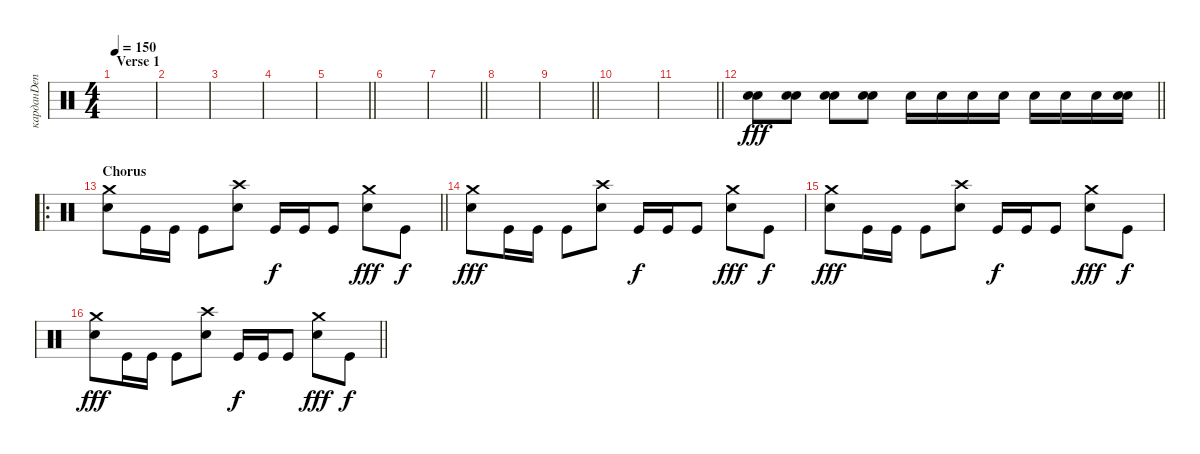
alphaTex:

\track ("карданDen" "карданDen") {instrument percussion}
\staff {score}
\articulation defaults
\ts (4 4)
\section ("" "Verse 1")
\tempo 150
\clef neutral
\ks c
|
|
|
|
\barLineRight lightlight
|
|
\barLineRight lightlight
|
|
\barLineRight lightlight
|
|
\barLineRight lightlight
|
\barLineRight lightlight
("Electric Snare (hit)" "Electric Snare (hit)").8{dy fff} ("Electric Snare (hit)" "Electric Snare (hit)").8 ("Electric Snare (hit)" "Electric Snare (hit)").8 ("Electric Snare (hit)" "Electric Snare (hit)").8 "Electric Snare (hit)".16 "Electric Snare (hit)".16 "Electric Snare (hit)".16 "Electric Snare (hit)".16 "Electric Snare (hit)".16 "Electric Snare (hit)".16 "Electric Snare (hit)".16 ("Electric Snare (hit)" "Electric Snare (hit)").16 |
\ro
\section ("" "Chorus")
\barLineRight lightlight
("Crash medium (hit)" "Electric Snare (hit)").8 "Kick (hit)".16 "Kick (hit)".16 "Kick (hit)".8 ("Crash high (hit)" "Electric Snare (hit)").8 "Kick (hit)".16{dy f} "Kick (hit)".16 "Kick (hit)".8 ("Crash medium (hit)" "Electric Snare (hit)").8{dy fff} "Kick (hit)".8{dy f} |
("Crash medium (hit)" "Electric Snare (hit)").8{dy fff} "Kick (hit)".16 "Kick (hit)".16 "Kick (hit)".8 ("Crash high (hit)" "Electric Snare (hit)").8 "Kick (hit)".16{dy f} "Kick (hit)".16 "Kick (hit)".8 ("Crash medium (hit)" "Electric Snare (hit)").8{dy fff} "Kick (hit)".8{dy f} |
("Crash medium (hit)" "Electric Snare (hit)").8{dy fff} "Kick (hit)".16 "Kick (hit)".16 "Kick (hit)".8 ("Crash high (hit)" "Electric Snare (hit)").8 "Kick (hit)".16{dy f} "Kick (hit)".16 "Kick (hit)".8 ("Crash medium (hit)" "Electric Snare (hit)").8{dy fff} "Kick (hit)".8{dy f} |
\barLineRight lightlight
("Crash medium (hit)" "Electric Snare (hit)").8{dy fff} "Kick (hit)".16 "Kick (hit)".16 "Kick (hit)".8 ("Crash high (hit)" "Electric Snare (hit)").8 "Kick (hit)".16{dy f} "Kick (hit)".16 "Kick (hit)".8 ("Crash medium (hit)" "Electric Snare (hit)").8{dy fff} "Kick (hit)".8{dy f}
